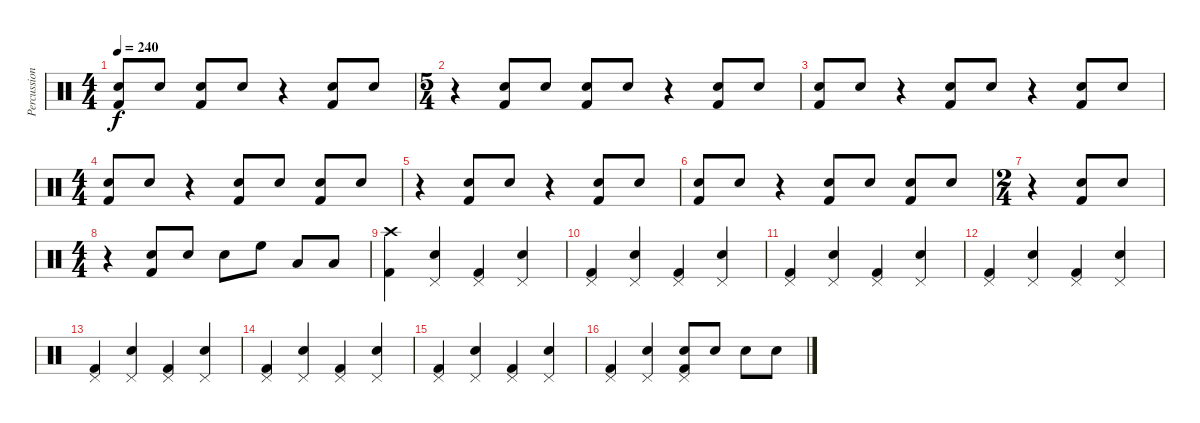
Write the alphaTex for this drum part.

\track ("Percussion" "Percussion") {instrument percussion}
\staff {score}
\articulation defaults
\ts (4 4)
\tempo 240
\clef neutral
\ks c
("Electric Snare (hit)" "Kick (hit) 2").8{dy f} "Electric Snare (hit)".8 ("Electric Snare (hit)" "Kick (hit) 2").8 "Electric Snare (hit)".8 r.4 ("Electric Snare (hit)" "Kick (hit) 2").8 "Electric Snare (hit)".8 |
\ts (5 4)
r.4 ("Electric Snare (hit)" "Kick (hit) 2").8 "Electric Snare (hit)".8 ("Electric Snare (hit)" "Kick (hit) 2").8 "Electric Snare (hit)".8 r.4 ("Electric Snare (hit)" "Kick (hit) 2").8 "Electric Snare (hit)".8 |
("Electric Snare (hit)" "Kick (hit) 2").8 "Electric Snare (hit)".8 r.4 ("Electric Snare (hit)" "Kick (hit) 2").8 "Electric Snare (hit)".8 r.4 ("Electric Snare (hit)" "Kick (hit) 2").8 "Electric Snare (hit)".8 |
\ts (4 4)
("Electric Snare (hit)" "Kick (hit) 2").8 "Electric Snare (hit)".8 r.4 ("Electric Snare (hit)" "Kick (hit) 2").8 "Electric Snare (hit)".8 ("Electric Snare (hit)" "Kick (hit) 2").8 "Electric Snare (hit)".8 |
r.4 ("Electric Snare (hit)" "Kick (hit) 2").8 "Electric Snare (hit)".8 r.4 ("Electric Snare (hit)" "Kick (hit) 2").8 "Electric Snare (hit)".8 |
("Electric Snare (hit)" "Kick (hit) 2").8 "Electric Snare (hit)".8 r.4 ("Electric Snare (hit)" "Kick (hit) 2").8 "Electric Snare (hit)".8 ("Electric Snare (hit)" "Kick (hit) 2").8 "Electric Snare (hit)".8 |
\ts (2 4)
r.4 ("Electric Snare (hit)" "Kick (hit) 2").8 "Electric Snare (hit)".8 |
\ts (4 4)
r.4 ("Electric Snare (hit)" "Kick (hit) 2").8 "Electric Snare (hit)".8 "Electric Snare (hit)".8 "High Floor Tom (hit)".8 "Low Tom (hit)".8 "Low Tom (hit)".8 |
("Crash high (hit)" "Kick (hit) 2").4 ("Pedal Hi-Hat (hit)" "Electric Snare (hit)").4 ("Pedal Hi-Hat (hit)" "Kick (hit) 2").4 ("Pedal Hi-Hat (hit)" "Electric Snare (hit)").4 |
("Pedal Hi-Hat (hit)" "Kick (hit) 2").4 ("Pedal Hi-Hat (hit)" "Electric Snare (hit)").4 ("Pedal Hi-Hat (hit)" "Kick (hit) 2").4 ("Pedal Hi-Hat (hit)" "Electric Snare (hit)").4 |
("Pedal Hi-Hat (hit)" "Kick (hit) 2").4 ("Pedal Hi-Hat (hit)" "Electric Snare (hit)").4 ("Pedal Hi-Hat (hit)" "Kick (hit) 2").4 ("Pedal Hi-Hat (hit)" "Electric Snare (hit)").4 |
("Pedal Hi-Hat (hit)" "Kick (hit) 2").4 ("Pedal Hi-Hat (hit)" "Electric Snare (hit)").4 ("Pedal Hi-Hat (hit)" "Kick (hit) 2").4 ("Pedal Hi-Hat (hit)" "Electric Snare (hit)").4 |
("Pedal Hi-Hat (hit)" "Kick (hit) 2").4 ("Pedal Hi-Hat (hit)" "Electric Snare (hit)").4 ("Pedal Hi-Hat (hit)" "Kick (hit) 2").4 ("Pedal Hi-Hat (hit)" "Electric Snare (hit)").4 |
("Pedal Hi-Hat (hit)" "Kick (hit) 2").4 ("Pedal Hi-Hat (hit)" "Electric Snare (hit)").4 ("Pedal Hi-Hat (hit)" "Kick (hit) 2").4 ("Pedal Hi-Hat (hit)" "Electric Snare (hit)").4 |
("Pedal Hi-Hat (hit)" "Kick (hit) 2").4 ("Pedal Hi-Hat (hit)" "Electric Snare (hit)").4 ("Pedal Hi-Hat (hit)" "Kick (hit) 2").4 ("Pedal Hi-Hat (hit)" "Electric Snare (hit)").4 |
("Pedal Hi-Hat (hit)" "Kick (hit) 2").4 ("Pedal Hi-Hat (hit)" "Electric Snare (hit)").4 ("Pedal Hi-Hat (hit)" "Electric Snare (hit)" "Kick (hit) 2").8 "Electric Snare (hit)".8 "Electric Snare (hit)".8 "Electric Snare (hit)".8
